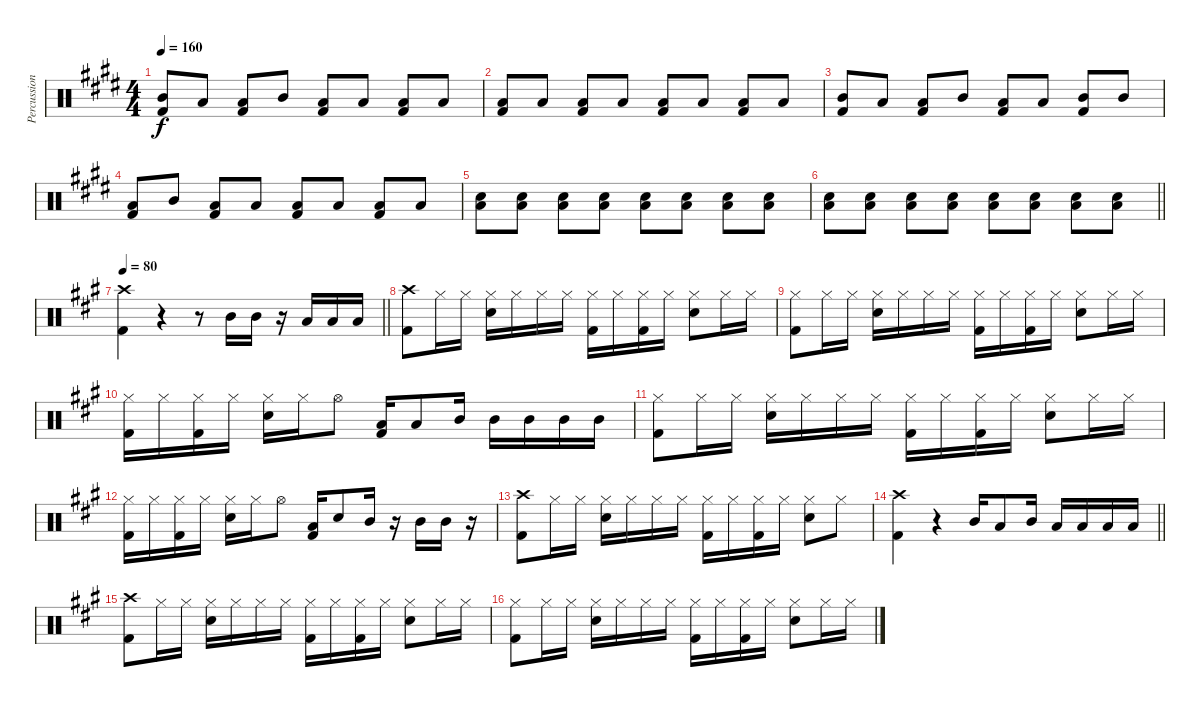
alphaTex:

\track ("Percussion" "Percussion") {instrument percussion}
\staff {score}
\articulation defaults
\ts (4 4)
\tempo 160
\clef neutral
\ks e
("Mid Tom (hit)" "Kick (hit) 2").8{dy f} "Low Floor Tom (hit)".8 ("Low Floor Tom (hit)" "Kick (hit) 2").8 "Mid Tom (hit)".8 ("Low Floor Tom (hit)" "Kick (hit) 2").8 "Low Floor Tom (hit)".8 ("Low Floor Tom (hit)" "Kick (hit) 2").8 "Low Floor Tom (hit)".8 |
("Low Floor Tom (hit)" "Kick (hit) 2").8 "Low Floor Tom (hit)".8 ("Low Floor Tom (hit)" "Kick (hit) 2").8 "Low Floor Tom (hit)".8 ("Low Floor Tom (hit)" "Kick (hit) 2").8 "Low Floor Tom (hit)".8 ("Low Floor Tom (hit)" "Kick (hit) 2").8 "Low Floor Tom (hit)".8 |
("Mid Tom (hit)" "Kick (hit) 2").8 "Low Floor Tom (hit)".8 ("Low Floor Tom (hit)" "Kick (hit) 2").8 "Mid Tom (hit)".8 ("Low Floor Tom (hit)" "Kick (hit) 2").8 "Low Floor Tom (hit)".8 ("Mid Tom (hit)" "Kick (hit) 2").8 "Mid Tom (hit)".8 |
("Low Floor Tom (hit)" "Kick (hit) 2").8 "Mid Tom (hit)".8 ("Low Floor Tom (hit)" "Kick (hit) 2").8 "Low Floor Tom (hit)".8 ("Low Floor Tom (hit)" "Kick (hit) 2").8 "Low Floor Tom (hit)".8 ("Low Floor Tom (hit)" "Kick (hit) 2").8 "Low Floor Tom (hit)".8 |
("Snare (hit) 2" "Low Floor Tom (hit)").8 ("Snare (hit) 2" "Low Floor Tom (hit)").8 ("Snare (hit) 2" "Low Floor Tom (hit)").8 ("Snare (hit) 2" "Low Floor Tom (hit)").8 ("Snare (hit) 2" "Low Floor Tom (hit)").8 ("Snare (hit) 2" "Low Floor Tom (hit)").8 ("Snare (hit) 2" "Low Floor Tom (hit)").8 ("Snare (hit) 2" "Low Floor Tom (hit)").8 |
\barLineRight lightlight
("Snare (hit) 2" "Low Floor Tom (hit)").8 ("Snare (hit) 2" "Low Floor Tom (hit)").8 ("Snare (hit) 2" "Low Floor Tom (hit)").8 ("Snare (hit) 2" "Low Floor Tom (hit)").8 ("Snare (hit) 2" "Low Floor Tom (hit)").8 ("Snare (hit) 2" "Low Floor Tom (hit)").8 ("Snare (hit) 2" "Low Floor Tom (hit)").8 ("Snare (hit) 2" "Low Floor Tom (hit)").8 |
\tempo 80
\barLineRight lightlight
\ks a
("Crash high (hit)" "Kick (hit) 2").4 r.4 r.8 "Mid Tom (hit)".16 "Mid Tom (hit)".16 r.16 "Low Floor Tom (hit)".16 "Low Floor Tom (hit)".16 "Low Floor Tom (hit)".16 |
("Crash high (hit)" "Kick (hit) 2").8 "Hi-Hat (closed)".16 "Hi-Hat (closed)".16 ("Hi-Hat (closed)" "Snare (hit) 2").16 "Hi-Hat (closed)".16 "Hi-Hat (closed)".16 "Hi-Hat (closed)".16 ("Hi-Hat (closed)" "Kick (hit) 2").16 "Hi-Hat (closed)".16 ("Hi-Hat (closed)" "Kick (hit) 2").16 "Hi-Hat (closed)".16 ("Hi-Hat (closed)" "Snare (hit) 2").8 "Hi-Hat (closed)".16 "Hi-Hat (closed)".16 |
("Hi-Hat (closed)" "Kick (hit) 2").8 "Hi-Hat (closed)".16 "Hi-Hat (closed)".16 ("Hi-Hat (closed)" "Snare (hit) 2").16 "Hi-Hat (closed)".16 "Hi-Hat (closed)".16 "Hi-Hat (closed)".16 ("Hi-Hat (closed)" "Kick (hit) 2").16 "Hi-Hat (closed)".16 ("Hi-Hat (closed)" "Kick (hit) 2").16 "Hi-Hat (closed)".16 ("Hi-Hat (closed)" "Snare (hit) 2").8 "Hi-Hat (closed)".16 "Hi-Hat (closed)".16 |
("Hi-Hat (closed)" "Kick (hit) 2").16 "Hi-Hat (closed)".16 ("Hi-Hat (closed)" "Kick (hit) 2").16 "Hi-Hat (closed)".16 ("Hi-Hat (closed)" "Snare (hit) 2").16 "Hi-Hat (closed)".16 "Hi-Hat (open)".8 ("Low Floor Tom (hit)" "Kick (hit) 2").16 "Low Floor Tom (hit)".8 "Mid Tom (hit)".16 "Mid Tom (hit)".16 "Mid Tom (hit)".16 "Mid Tom (hit)".16 "Mid Tom (hit)".16 |
("Hi-Hat (closed)" "Kick (hit) 2").8 "Hi-Hat (closed)".16 "Hi-Hat (closed)".16 ("Hi-Hat (closed)" "Snare (hit) 2").16 "Hi-Hat (closed)".16 "Hi-Hat (closed)".16 "Hi-Hat (closed)".16 ("Hi-Hat (closed)" "Kick (hit) 2").16 "Hi-Hat (closed)".16 ("Hi-Hat (closed)" "Kick (hit) 2").16 "Hi-Hat (closed)".16 ("Hi-Hat (closed)" "Snare (hit) 2").8 "Hi-Hat (closed)".16 "Hi-Hat (closed)".16 |
("Hi-Hat (closed)" "Kick (hit) 2").16 "Hi-Hat (closed)".16 ("Hi-Hat (closed)" "Kick (hit) 2").16 "Hi-Hat (closed)".16 ("Hi-Hat (closed)" "Snare (hit) 2").16 "Hi-Hat (closed)".16 "Hi-Hat (open)".8 ("Low Floor Tom (hit)" "Kick (hit) 2").16 "Snare (hit) 2".8 "Mid Tom (hit)".16 r.16 "Mid Tom (hit)".16 "Mid Tom (hit)".16 r.16 |
("Crash high (hit)" "Kick (hit) 2").8 "Hi-Hat (closed)".16 "Hi-Hat (closed)".16 ("Hi-Hat (closed)" "Snare (hit) 2").16 "Hi-Hat (closed)".16 "Hi-Hat (closed)".16 "Hi-Hat (closed)".16 ("Hi-Hat (closed)" "Kick (hit) 2").16 "Hi-Hat (closed)".16 ("Hi-Hat (closed)" "Kick (hit) 2").16 "Hi-Hat (closed)".16 ("Hi-Hat (closed)" "Snare (hit) 2").8 "Hi-Hat (closed)".8 |
\barLineRight lightlight
("Crash high (hit)" "Kick (hit) 2").4 r.4 "Mid Tom (hit)".16 "Low Floor Tom (hit)".8 "Mid Tom (hit)".16 "Low Floor Tom (hit)".16 "Low Floor Tom (hit)".16 "Low Floor Tom (hit)".16 "Low Floor Tom (hit)".16 |
("Crash high (hit)" "Kick (hit) 2").8 "Hi-Hat (closed)".16 "Hi-Hat (closed)".16 ("Hi-Hat (closed)" "Snare (hit) 2").16 "Hi-Hat (closed)".16 "Hi-Hat (closed)".16 "Hi-Hat (closed)".16 ("Hi-Hat (closed)" "Kick (hit) 2").16 "Hi-Hat (closed)".16 ("Hi-Hat (closed)" "Kick (hit) 2").16 "Hi-Hat (closed)".16 ("Hi-Hat (closed)" "Snare (hit) 2").8 "Hi-Hat (closed)".16 "Hi-Hat (closed)".16 |
("Hi-Hat (closed)" "Kick (hit) 2").8 "Hi-Hat (closed)".16 "Hi-Hat (closed)".16 ("Hi-Hat (closed)" "Snare (hit) 2").16 "Hi-Hat (closed)".16 "Hi-Hat (closed)".16 "Hi-Hat (closed)".16 ("Hi-Hat (closed)" "Kick (hit) 2").16 "Hi-Hat (closed)".16 ("Hi-Hat (closed)" "Kick (hit) 2").16 "Hi-Hat (closed)".16 ("Hi-Hat (closed)" "Snare (hit) 2").8 "Hi-Hat (closed)".16 "Hi-Hat (closed)".16
